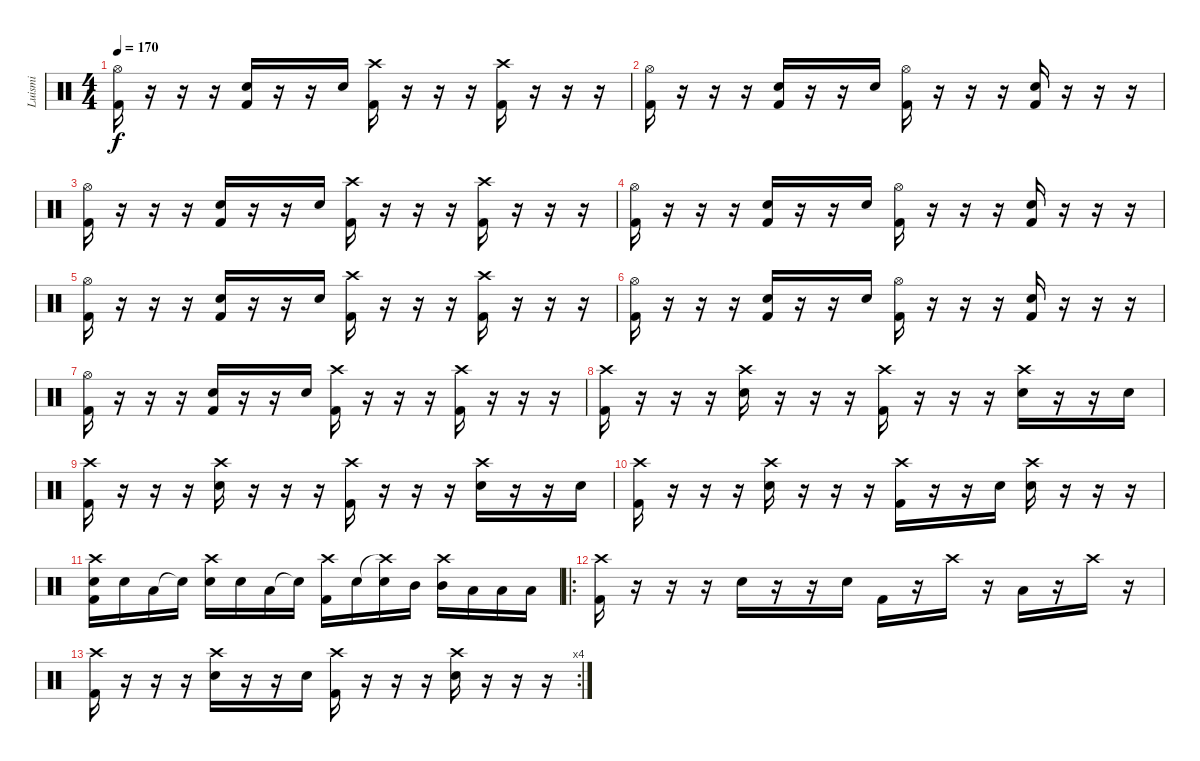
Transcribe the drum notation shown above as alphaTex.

\track ("Luismi" "Luismi") {instrument percussion}
\staff {score}
\articulation defaults
\ts (4 4)
\tempo 170
\clef neutral
\ks c
("Kick (hit) 2" "Hi-Hat (open)").16{dy f} r.16 r.16 r.16 ("Kick (hit) 2" "Electric Snare (hit)").16 r.16 r.16 "Electric Snare (hit)".16 ("Kick (hit) 2" "Crash high (hit)").16 r.16 r.16 r.16 ("Kick (hit) 2" "Crash high (hit)").16 r.16 r.16 r.16 |
("Kick (hit) 2" "Hi-Hat (open)").16 r.16 r.16 r.16 ("Kick (hit) 2" "Electric Snare (hit)").16 r.16 r.16 "Electric Snare (hit)".16 ("Kick (hit) 2" "Hi-Hat (open)").16 r.16 r.16 r.16 ("Kick (hit) 2" "Electric Snare (hit)").16 r.16 r.16 r.16 |
("Kick (hit) 2" "Hi-Hat (open)").16 r.16 r.16 r.16 ("Kick (hit) 2" "Electric Snare (hit)").16 r.16 r.16 "Electric Snare (hit)".16 ("Kick (hit) 2" "Crash high (hit)").16 r.16 r.16 r.16 ("Kick (hit) 2" "Crash high (hit)").16 r.16 r.16 r.16 |
("Kick (hit) 2" "Hi-Hat (open)").16 r.16 r.16 r.16 ("Kick (hit) 2" "Electric Snare (hit)").16 r.16 r.16 "Electric Snare (hit)".16 ("Kick (hit) 2" "Hi-Hat (open)").16 r.16 r.16 r.16 ("Kick (hit) 2" "Electric Snare (hit)").16 r.16 r.16 r.16 |
("Kick (hit) 2" "Hi-Hat (open)").16 r.16 r.16 r.16 ("Kick (hit) 2" "Electric Snare (hit)").16 r.16 r.16 "Electric Snare (hit)".16 ("Kick (hit) 2" "Crash high (hit)").16 r.16 r.16 r.16 ("Kick (hit) 2" "Crash high (hit)").16 r.16 r.16 r.16 |
("Kick (hit) 2" "Hi-Hat (open)").16 r.16 r.16 r.16 ("Kick (hit) 2" "Electric Snare (hit)").16 r.16 r.16 "Electric Snare (hit)".16 ("Kick (hit) 2" "Hi-Hat (open)").16 r.16 r.16 r.16 ("Kick (hit) 2" "Electric Snare (hit)").16 r.16 r.16 r.16 |
("Kick (hit) 2" "Hi-Hat (open)").16 r.16 r.16 r.16 ("Kick (hit) 2" "Electric Snare (hit)").16 r.16 r.16 "Electric Snare (hit)".16 ("Kick (hit) 2" "Crash high (hit)").16 r.16 r.16 r.16 ("Kick (hit) 2" "Crash high (hit)").16 r.16 r.16 r.16 |
("Crash high (hit)" "Kick (hit) 2").16 r.16 r.16 r.16 ("Crash high (hit)" "Electric Snare (hit)").16 r.16 r.16 r.16 ("Crash high (hit)" "Kick (hit) 2").16 r.16 r.16 r.16 ("Crash high (hit)" "Electric Snare (hit)").16 r.16 r.16 "Electric Snare (hit)".16 |
("Crash high (hit)" "Kick (hit) 2").16 r.16 r.16 r.16 ("Crash high (hit)" "Electric Snare (hit)").16 r.16 r.16 r.16 ("Crash high (hit)" "Kick (hit) 2").16 r.16 r.16 r.16 ("Crash high (hit)" "Electric Snare (hit)").16 r.16 r.16 "Electric Snare (hit)".16 |
("Crash high (hit)" "Kick (hit) 2").16 r.16 r.16 r.16 ("Crash high (hit)" "Electric Snare (hit)").16 r.16 r.16 r.16 ("Crash high (hit)" "Kick (hit) 2").16 r.16 r.16 "Electric Snare (hit)".16 ("Crash high (hit)" "Electric Snare (hit)").16 r.16 r.16 r.16 |
("Crash high (hit)" "Kick (hit) 2" "Electric Snare (hit)").16 "Electric Snare (hit)".16 "Low Tom (hit)".16 "Snare (hit)"{t}.16 ("Crash high (hit)" "Electric Snare (hit)").16 "Electric Snare (hit)".16 "Low Tom (hit)".16 "Snare (hit)"{t}.16 ("Crash high (hit)" "Kick (hit) 2").16 "Electric Snare (hit)".16 ("Crash high (hit)"{t} "Electric Snare (hit)").16 "Mid Tom (hit)".16 ("Crash high (hit)" "Mid Tom (hit)").16 "Low Tom (hit)".16 "Low Tom (hit)".16 "Low Tom (hit)".16 |
\ro
("Crash high (hit)" "Kick (hit) 2").16 r.16 r.16 r.16 "Electric Snare (hit)".16 r.16 r.16 "Electric Snare (hit)".16 "Kick (hit) 2".16 r.16 "Crash high (hit)".16 r.16 "Low Tom (hit)".16 r.16 "Crash high (hit)".16 r.16 |
\rc 4
("Crash high (hit)" "Kick (hit) 2").16 r.16 r.16 r.16 ("Crash high (hit)" "Electric Snare (hit)").16 r.16 r.16 "Electric Snare (hit)".16 ("Crash high (hit)" "Kick (hit) 2").16 r.16 r.16 r.16 ("Crash high (hit)" "Electric Snare (hit)").16 r.16 r.16 r.16
